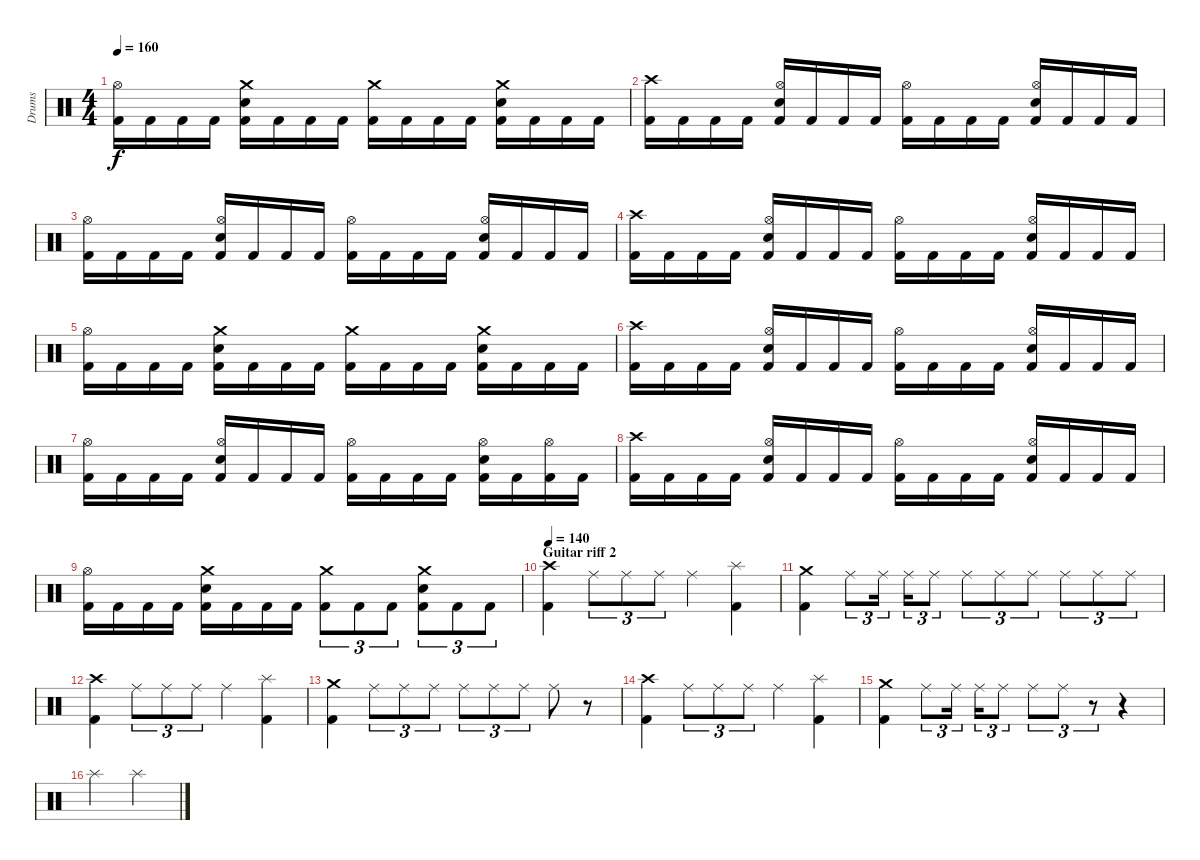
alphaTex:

\track ("Drums" "Drums") {instrument percussion}
\staff {score}
\articulation defaults
\ts (4 4)
\tempo 160
\clef neutral
\ks c
("Kick (hit) 2" "Hi-Hat (open)").16{dy f} "Kick (hit) 2".16 "Kick (hit) 2".16 "Kick (hit) 2".16 ("Kick (hit) 2" "Electric Snare (hit)" "Crash medium (hit)").16 "Kick (hit) 2".16 "Kick (hit) 2".16 "Kick (hit) 2".16 ("Kick (hit) 2" "Crash medium (hit)").16 "Kick (hit) 2".16 "Kick (hit) 2".16 "Kick (hit) 2".16 ("Kick (hit) 2" "Electric Snare (hit)" "Crash medium (hit)").16 "Kick (hit) 2".16 "Kick (hit) 2".16 "Kick (hit) 2".16 |
("Kick (hit) 2" "Crash high (hit)").16 "Kick (hit) 2".16 "Kick (hit) 2".16 "Kick (hit) 2".16 ("Kick (hit) 2" "Electric Snare (hit)" "Hi-Hat (open)").16 "Kick (hit) 2".16 "Kick (hit) 2".16 "Kick (hit) 2".16 ("Kick (hit) 2" "Hi-Hat (open)").16 "Kick (hit) 2".16 "Kick (hit) 2".16 "Kick (hit) 2".16 ("Kick (hit) 2" "Electric Snare (hit)" "Hi-Hat (open)").16 "Kick (hit) 2".16 "Kick (hit) 2".16 "Kick (hit) 2".16 |
("Kick (hit) 2" "Hi-Hat (open)").16 "Kick (hit) 2".16 "Kick (hit) 2".16 "Kick (hit) 2".16 ("Kick (hit) 2" "Electric Snare (hit)" "Hi-Hat (open)").16 "Kick (hit) 2".16 "Kick (hit) 2".16 "Kick (hit) 2".16 ("Kick (hit) 2" "Hi-Hat (open)").16 "Kick (hit) 2".16 "Kick (hit) 2".16 "Kick (hit) 2".16 ("Kick (hit) 2" "Electric Snare (hit)" "Hi-Hat (open)").16 "Kick (hit) 2".16 "Kick (hit) 2".16 "Kick (hit) 2".16 |
("Kick (hit) 2" "Crash high (hit)").16 "Kick (hit) 2".16 "Kick (hit) 2".16 "Kick (hit) 2".16 ("Kick (hit) 2" "Electric Snare (hit)" "Hi-Hat (open)").16 "Kick (hit) 2".16 "Kick (hit) 2".16 "Kick (hit) 2".16 ("Kick (hit) 2" "Hi-Hat (open)").16 "Kick (hit) 2".16 "Kick (hit) 2".16 "Kick (hit) 2".16 ("Kick (hit) 2" "Electric Snare (hit)" "Hi-Hat (open)").16 "Kick (hit) 2".16 "Kick (hit) 2".16 "Kick (hit) 2".16 |
("Kick (hit) 2" "Hi-Hat (open)").16 "Kick (hit) 2".16 "Kick (hit) 2".16 "Kick (hit) 2".16 ("Kick (hit) 2" "Electric Snare (hit)" "Crash medium (hit)").16 "Kick (hit) 2".16 "Kick (hit) 2".16 "Kick (hit) 2".16 ("Kick (hit) 2" "Crash medium (hit)").16 "Kick (hit) 2".16 "Kick (hit) 2".16 "Kick (hit) 2".16 ("Kick (hit) 2" "Electric Snare (hit)" "Crash medium (hit)").16 "Kick (hit) 2".16 "Kick (hit) 2".16 "Kick (hit) 2".16 |
("Kick (hit) 2" "Crash high (hit)").16 "Kick (hit) 2".16 "Kick (hit) 2".16 "Kick (hit) 2".16 ("Kick (hit) 2" "Electric Snare (hit)" "Hi-Hat (open)").16 "Kick (hit) 2".16 "Kick (hit) 2".16 "Kick (hit) 2".16 ("Kick (hit) 2" "Hi-Hat (open)").16 "Kick (hit) 2".16 "Kick (hit) 2".16 "Kick (hit) 2".16 ("Kick (hit) 2" "Electric Snare (hit)" "Hi-Hat (open)").16 "Kick (hit) 2".16 "Kick (hit) 2".16 "Kick (hit) 2".16 |
("Kick (hit) 2" "Hi-Hat (open)").16 "Kick (hit) 2".16 "Kick (hit) 2".16 "Kick (hit) 2".16 ("Kick (hit) 2" "Electric Snare (hit)" "Hi-Hat (open)").16 "Kick (hit) 2".16 "Kick (hit) 2".16 "Kick (hit) 2".16 ("Kick (hit) 2" "Hi-Hat (open)").16 "Kick (hit) 2".16 "Kick (hit) 2".16 "Kick (hit) 2".16 ("Kick (hit) 2" "Electric Snare (hit)" "Hi-Hat (open)").16 "Kick (hit) 2".16 ("Kick (hit) 2" "Hi-Hat (open)").16 "Kick (hit) 2".16 |
("Kick (hit) 2" "Crash high (hit)").16 "Kick (hit) 2".16 "Kick (hit) 2".16 "Kick (hit) 2".16 ("Kick (hit) 2" "Electric Snare (hit)" "Hi-Hat (open)").16 "Kick (hit) 2".16 "Kick (hit) 2".16 "Kick (hit) 2".16 ("Kick (hit) 2" "Hi-Hat (open)").16 "Kick (hit) 2".16 "Kick (hit) 2".16 "Kick (hit) 2".16 ("Kick (hit) 2" "Electric Snare (hit)" "Hi-Hat (open)").16 "Kick (hit) 2".16 "Kick (hit) 2".16 "Kick (hit) 2".16 |
("Kick (hit) 2" "Hi-Hat (open)").16 "Kick (hit) 2".16 "Kick (hit) 2".16 "Kick (hit) 2".16 ("Kick (hit) 2" "Electric Snare (hit)" "Crash medium (hit)").16 "Kick (hit) 2".16 "Kick (hit) 2".16 "Kick (hit) 2".16 ("Kick (hit) 2" "Crash medium (hit)").8{tu (3 2)} "Kick (hit) 2".8{tu (3 2)} "Kick (hit) 2".8{tu (3 2)} ("Kick (hit) 2" "Electric Snare (hit)" "Crash medium (hit)").8{tu (3 2)} "Kick (hit) 2".8{tu (3 2)} "Kick (hit) 2".8{tu (3 2)} |
\section ("" "Guitar riff 2")
\tempo 140
("Kick (hit) 2" "Crash high (hit)").4 "Ride (middle)".8{tu (3 2)} "Ride (middle)".8{tu (3 2)} "Ride (middle)".8{tu (3 2)} "Ride (middle)".4 ("Kick (hit) 2" "Splash (hit)").4 |
("Kick (hit) 2" "Crash medium (hit)").4 "Ride (middle)".8{tu (3 2)} "Ride (middle)".16{tu (3 2)} "Ride (middle)".16{tu (3 2)} "Ride (middle)".8{tu (3 2)} "Ride (middle)".8{tu (3 2)} "Ride (middle)".8{tu (3 2)} "Ride (middle)".8{tu (3 2)} "Ride (middle)".8{tu (3 2)} "Ride (middle)".8{tu (3 2)} "Ride (middle)".8{tu (3 2)} |
("Kick (hit) 2" "Crash high (hit)").4 "Ride (middle)".8{tu (3 2)} "Ride (middle)".8{tu (3 2)} "Ride (middle)".8{tu (3 2)} "Ride (middle)".4 ("Kick (hit) 2" "Splash (hit)").4 |
("Kick (hit) 2" "Crash medium (hit)").4 "Ride (middle)".8{tu (3 2)} "Ride (middle)".8{tu (3 2)} "Ride (middle)".8{tu (3 2)} "Ride (middle)".8{tu (3 2)} "Ride (middle)".8{tu (3 2)} "Ride (middle)".8{tu (3 2)} "Ride (middle)".8 r.8 |
("Kick (hit) 2" "Crash high (hit)").4 "Ride (middle)".8{tu (3 2)} "Ride (middle)".8{tu (3 2)} "Ride (middle)".8{tu (3 2)} "Ride (middle)".4 ("Kick (hit) 2" "Splash (hit)").4 |
("Kick (hit) 2" "Crash medium (hit)").4 "Ride (middle)".8{tu (3 2)} "Ride (middle)".16{tu (3 2)} "Ride (middle)".16{tu (3 2)} "Ride (middle)".8{tu (3 2)} "Ride (middle)".8{tu (3 2)} "Ride (middle)".8{tu (3 2)} r.8{tu (3 2)} r.4 |
"Splash (hit)".2 "Splash (hit)".2
